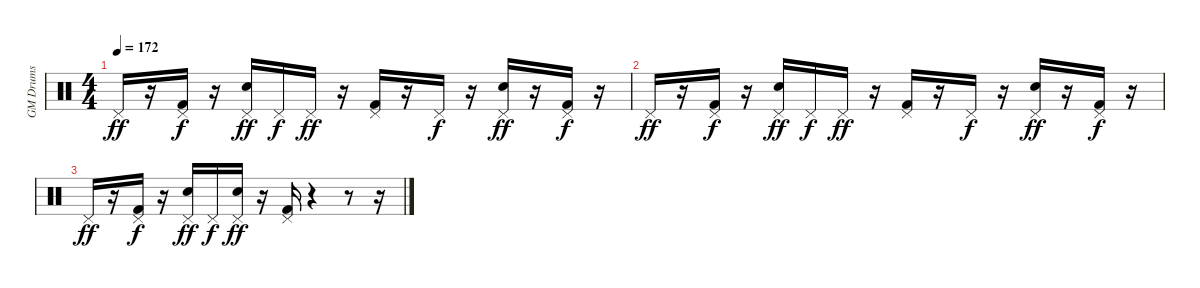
\track ("GM Drums" "GM Drums") {instrument percussion}
\staff {score}
\articulation defaults
\ts (4 4)
\tempo 172
\clef neutral
\ks c "Pedal Hi-Hat (hit)".16{dy ff}
r.16 ("Kick (hit) 2" "Pedal Hi-Hat (hit)").16{dy f} r.16 ("Snare (hit) 2" "Pedal Hi-Hat (hit)").16{dy ff} "Pedal Hi-Hat (hit)".16{dy f} "Pedal Hi-Hat (hit)".16{dy ff} r.16 ("Kick (hit) 2" "Pedal Hi-Hat (hit)").16 r.16 "Pedal Hi-Hat (hit)".16{dy f} r.16 ("Snare (hit) 2" "Pedal Hi-Hat (hit)").16{dy ff} r.16 ("Kick (hit) 2" "Pedal Hi-Hat (hit)").16{dy f} r.16 |
"Pedal Hi-Hat (hit)".16{dy ff} r.16 ("Kick (hit) 2" "Pedal Hi-Hat (hit)").16{dy f} r.16 ("Snare (hit) 2" "Pedal Hi-Hat (hit)").16{dy ff} "Pedal Hi-Hat (hit)".16{dy f} "Pedal Hi-Hat (hit)".16{dy ff} r.16 ("Kick (hit) 2" "Pedal Hi-Hat (hit)").16 r.16 "Pedal Hi-Hat (hit)".16{dy f} r.16 ("Snare (hit) 2" "Pedal Hi-Hat (hit)").16{dy ff} r.16 ("Kick (hit) 2" "Pedal Hi-Hat (hit)").16{dy f} r.16 |
"Pedal Hi-Hat (hit)".16{dy ff} r.16 ("Kick (hit) 2" "Pedal Hi-Hat (hit)").16{dy f} r.16 ("Snare (hit) 2" "Pedal Hi-Hat (hit)").16{dy ff} "Pedal Hi-Hat (hit)".16{dy f} ("Snare (hit) 2" "Pedal Hi-Hat (hit)").16{dy ff} r.16 ("Kick (hit) 2" "Pedal Hi-Hat (hit)").16 r.4 r.8 r.16
